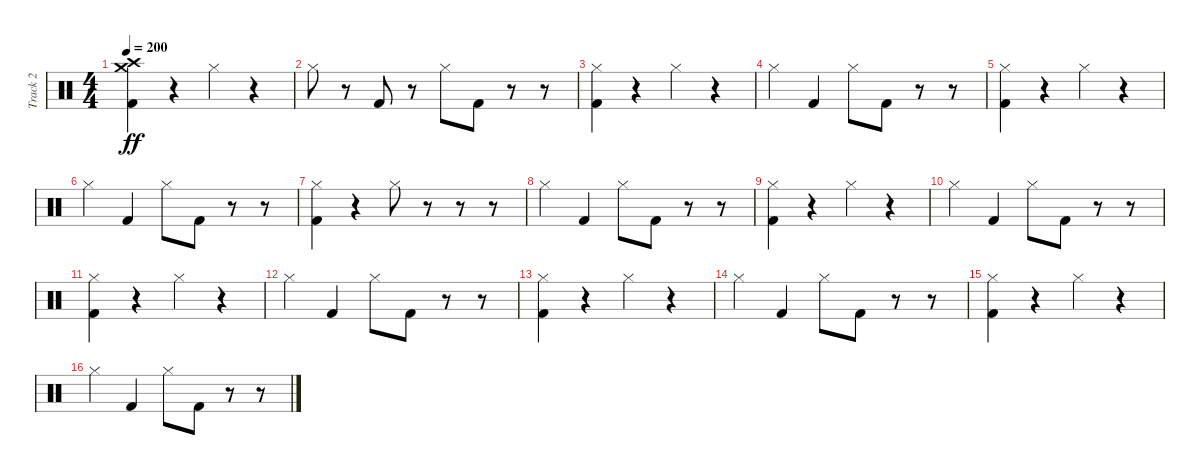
\track ("Track 2" "Track 2") {instrument percussion}
\staff {score}
\articulation defaults
\ts (4 4)
\tempo 200
\clef neutral
\ks c
("Crash medium (hit)" "Crash high (hit)" "Kick (hit) 2").4{dy ff} r.4 "Hi-Hat (closed)".4 r.4 |
"Hi-Hat (closed)".8 r.8 "Kick (hit) 2".8 r.8 "Hi-Hat (closed)".8 "Kick (hit) 2".8 r.8 r.8 |
("Hi-Hat (closed)" "Kick (hit) 2").4 r.4 "Hi-Hat (closed)".4 r.4 |
"Hi-Hat (closed)".4 "Kick (hit) 2".4 "Hi-Hat (closed)".8 "Kick (hit) 2".8 r.8 r.8 |
("Hi-Hat (closed)" "Kick (hit) 2").4 r.4 "Hi-Hat (closed)".4 r.4 |
"Hi-Hat (closed)".4 "Kick (hit) 2".4 "Hi-Hat (closed)".8 "Kick (hit) 2".8 r.8 r.8 |
("Hi-Hat (closed)" "Kick (hit) 2").4 r.4 "Hi-Hat (closed)".8 r.8 r.8 r.8 |
"Hi-Hat (closed)".4 "Kick (hit) 2".4 "Hi-Hat (closed)".8 "Kick (hit) 2".8 r.8 r.8 |
("Hi-Hat (closed)" "Kick (hit) 2").4 r.4 "Hi-Hat (closed)".4 r.4 |
"Hi-Hat (closed)".4 "Kick (hit) 2".4 "Hi-Hat (closed)".8 "Kick (hit) 2".8 r.8 r.8 |
("Hi-Hat (closed)" "Kick (hit) 2").4 r.4 "Hi-Hat (closed)".4 r.4 |
"Hi-Hat (closed)".4 "Kick (hit) 2".4 "Hi-Hat (closed)".8 "Kick (hit) 2".8 r.8 r.8 |
("Hi-Hat (closed)" "Kick (hit) 2").4 r.4 "Hi-Hat (closed)".4 r.4 |
"Hi-Hat (closed)".4 "Kick (hit) 2".4 "Hi-Hat (closed)".8 "Kick (hit) 2".8 r.8 r.8 |
("Hi-Hat (closed)" "Kick (hit) 2").4 r.4 "Hi-Hat (closed)".4 r.4 |
"Hi-Hat (closed)".4 "Kick (hit) 2".4 "Hi-Hat (closed)".8 "Kick (hit) 2".8 r.8 r.8
